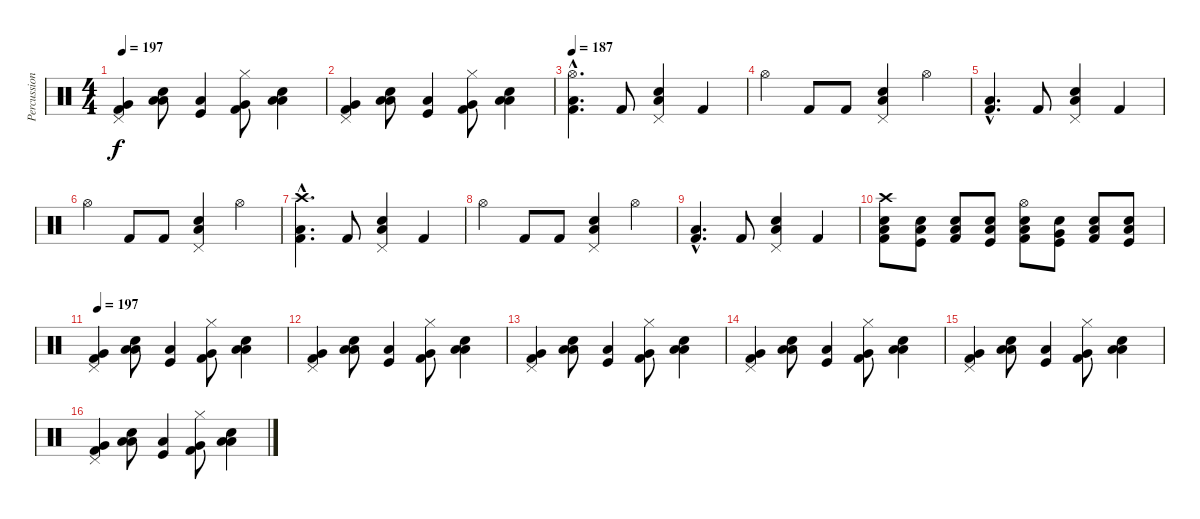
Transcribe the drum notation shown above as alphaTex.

\track ("Percussions" "Percussion") {instrument percussion}
\staff {score}
\articulation defaults
\ts (4 4)
\tempo 197
\clef neutral
\ks c
("Pedal Hi-Hat (hit)" "Very Low Tom (hit)" "Kick (hit) 2").4{dy f} ("Low Tom (hit)" "Low Floor Tom (hit)" "Electric Snare (hit)").8 ("Low Tom (hit)" "Kick (hit)").4 ("Hi-Hat (closed)" "Very Low Tom (hit)" "Kick (hit) 2").8 ("Low Tom (hit)" "Low Floor Tom (hit)" "Electric Snare (hit)").4 |
("Pedal Hi-Hat (hit)" "Very Low Tom (hit)" "Kick (hit) 2").4 ("Low Tom (hit)" "Low Floor Tom (hit)" "Electric Snare (hit)").8 ("Low Tom (hit)" "Kick (hit)").4 ("Hi-Hat (closed)" "Very Low Tom (hit)" "Kick (hit) 2").8 ("Low Tom (hit)" "Low Floor Tom (hit)" "Electric Snare (hit)").4 |
\tempo 187
("Low Tom (hit)"{hac} "Hi-Hat (open)"{hac} "Kick (hit) 2"{hac}).4{d} "Kick (hit) 2".8 ("Pedal Hi-Hat (hit)" "Snare (hit) 2" "Low Floor Tom (hit)").4 "Kick (hit) 2".4 |
"Hi-Hat (open)".4 "Kick (hit) 2".8 "Kick (hit) 2".8 ("Low Tom (hit)" "Snare (hit) 2" "Pedal Hi-Hat (hit)").4 "Hi-Hat (open)".4 |
("Low Tom (hit)"{hac} "Kick (hit) 2"{hac}).4{d} "Kick (hit) 2".8 ("Pedal Hi-Hat (hit)" "Snare (hit) 2" "Low Floor Tom (hit)").4 "Kick (hit) 2".4 |
"Hi-Hat (open)".4 "Kick (hit) 2".8 "Kick (hit) 2".8 ("Low Tom (hit)" "Snare (hit) 2" "Pedal Hi-Hat (hit)").4 "Hi-Hat (open)".4 |
("Low Tom (hit)"{hac} "Crash high (hit)"{hac} "Kick (hit) 2"{hac}).4{d} "Kick (hit) 2".8 ("Pedal Hi-Hat (hit)" "Snare (hit) 2" "Low Floor Tom (hit)").4 "Kick (hit) 2".4 |
"Hi-Hat (open)".4 "Kick (hit) 2".8 "Kick (hit) 2".8 ("Low Tom (hit)" "Snare (hit) 2" "Pedal Hi-Hat (hit)").4 "Hi-Hat (open)".4 |
("Low Tom (hit)"{hac} "Kick (hit) 2"{hac}).4{d} "Kick (hit) 2".8 ("Pedal Hi-Hat (hit)" "Snare (hit) 2" "Low Floor Tom (hit)").4 "Kick (hit) 2".4 |
("Crash high (hit)" "Low Tom (hit)" "Snare (hit) 2" "Kick (hit) 2").8 ("Low Tom (hit)" "Snare (hit) 2" "Kick (hit)").8 ("Low Tom (hit)" "Snare (hit) 2" "Kick (hit) 2").8 ("Low Tom (hit)" "Snare (hit) 2" "Kick (hit)").8 ("Hi-Hat (open)" "Low Floor Tom (hit)" "Electric Snare (hit)" "Kick (hit) 2").8 ("Very Low Tom (hit)" "Snare (hit) 2" "Kick (hit)").8 ("Low Tom (hit)" "Snare (hit) 2" "Kick (hit) 2").8 ("Low Tom (hit)" "Snare (hit) 2" "Kick (hit)").8 |
\tempo 197
("Pedal Hi-Hat (hit)" "Very Low Tom (hit)" "Kick (hit) 2").4 ("Low Tom (hit)" "Low Floor Tom (hit)" "Electric Snare (hit)").8 ("Low Tom (hit)" "Kick (hit)").4 ("Hi-Hat (closed)" "Very Low Tom (hit)" "Kick (hit) 2").8 ("Low Tom (hit)" "Low Floor Tom (hit)" "Electric Snare (hit)").4 |
("Pedal Hi-Hat (hit)" "Very Low Tom (hit)" "Kick (hit) 2").4 ("Low Tom (hit)" "Low Floor Tom (hit)" "Electric Snare (hit)").8 ("Low Tom (hit)" "Kick (hit)").4 ("Hi-Hat (closed)" "Very Low Tom (hit)" "Kick (hit) 2").8 ("Low Tom (hit)" "Low Floor Tom (hit)" "Electric Snare (hit)").4 |
("Pedal Hi-Hat (hit)" "Very Low Tom (hit)" "Kick (hit) 2").4 ("Low Tom (hit)" "Low Floor Tom (hit)" "Electric Snare (hit)").8 ("Low Tom (hit)" "Kick (hit)").4 ("Hi-Hat (closed)" "Very Low Tom (hit)" "Kick (hit) 2").8 ("Low Tom (hit)" "Low Floor Tom (hit)" "Electric Snare (hit)").4 |
("Pedal Hi-Hat (hit)" "Very Low Tom (hit)" "Kick (hit) 2").4 ("Low Tom (hit)" "Low Floor Tom (hit)" "Electric Snare (hit)").8 ("Low Tom (hit)" "Kick (hit)").4 ("Hi-Hat (closed)" "Very Low Tom (hit)" "Kick (hit) 2").8 ("Low Tom (hit)" "Low Floor Tom (hit)" "Electric Snare (hit)").4 |
("Pedal Hi-Hat (hit)" "Very Low Tom (hit)" "Kick (hit) 2").4 ("Low Tom (hit)" "Low Floor Tom (hit)" "Electric Snare (hit)").8 ("Low Tom (hit)" "Kick (hit)").4 ("Hi-Hat (closed)" "Very Low Tom (hit)" "Kick (hit) 2").8 ("Low Tom (hit)" "Low Floor Tom (hit)" "Electric Snare (hit)").4 |
("Pedal Hi-Hat (hit)" "Very Low Tom (hit)" "Kick (hit) 2").4 ("Low Tom (hit)" "Low Floor Tom (hit)" "Electric Snare (hit)").8 ("Low Tom (hit)" "Kick (hit)").4 ("Hi-Hat (closed)" "Very Low Tom (hit)" "Kick (hit) 2").8 ("Low Tom (hit)" "Low Floor Tom (hit)" "Electric Snare (hit)").4
